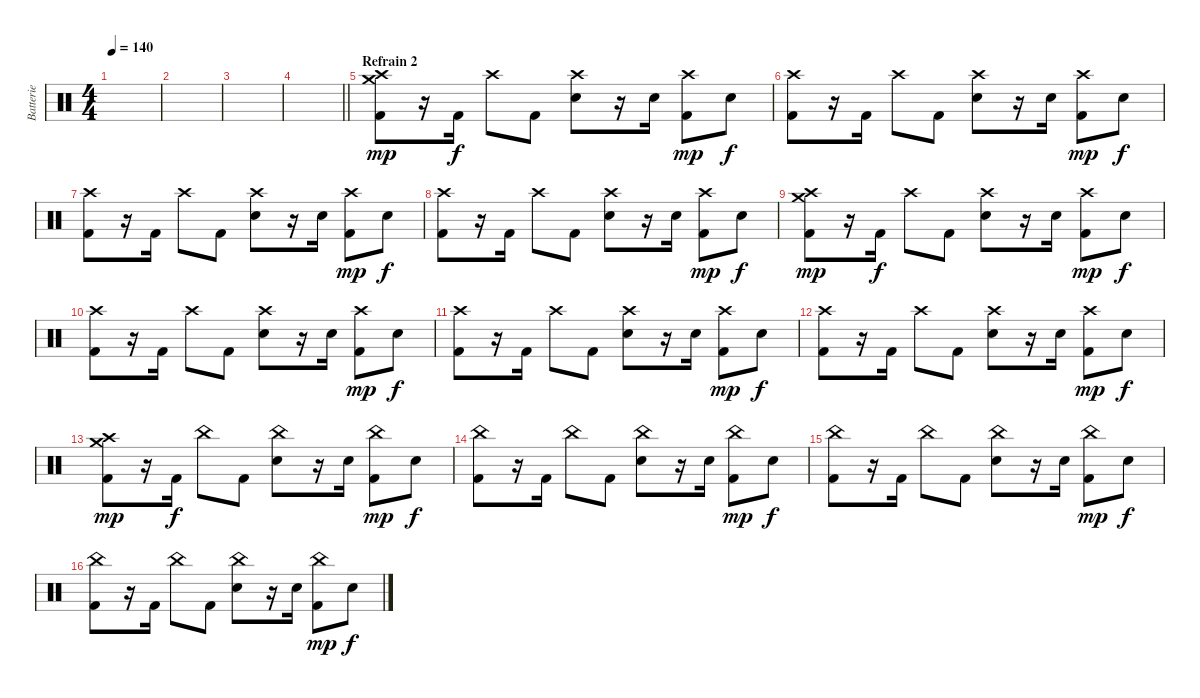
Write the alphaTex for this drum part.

\track ("Batterie" "Batterie") {instrument percussion}
\staff {score}
\articulation defaults
\ts (4 4)
\tempo 140
\clef neutral
\ks c
|
|
|
\barLineRight lightlight
|
\section ("" "Refrain 2")
("Kick (hit) 2" "Crash medium (hit)" "Crash high (hit)").8{dy mp} r.16 "Kick (hit) 2".16{dy f} "Crash high (hit)".8 "Kick (hit) 2".8 ("Electric Snare (hit)" "Crash high (hit)").8 r.16 "Electric Snare (hit)".16 ("Kick (hit) 2" "Crash high (hit)").8{dy mp} "Electric Snare (hit)".8{dy f} |
("Kick (hit) 2" "Crash high (hit)").8 r.16 "Kick (hit) 2".16 "Crash high (hit)".8 "Kick (hit) 2".8 ("Electric Snare (hit)" "Crash high (hit)").8 r.16 "Electric Snare (hit)".16 ("Kick (hit) 2" "Crash high (hit)").8{dy mp} "Electric Snare (hit)".8{dy f} |
("Kick (hit) 2" "Crash high (hit)").8 r.16 "Kick (hit) 2".16 "Crash high (hit)".8 "Kick (hit) 2".8 ("Electric Snare (hit)" "Crash high (hit)").8 r.16 "Electric Snare (hit)".16 ("Kick (hit) 2" "Crash high (hit)").8{dy mp} "Electric Snare (hit)".8{dy f} |
("Kick (hit) 2" "Crash high (hit)").8 r.16 "Kick (hit) 2".16 "Crash high (hit)".8 "Kick (hit) 2".8 ("Electric Snare (hit)" "Crash high (hit)").8 r.16 "Electric Snare (hit)".16 ("Kick (hit) 2" "Crash high (hit)").8{dy mp} "Electric Snare (hit)".8{dy f} |
("Kick (hit) 2" "Crash medium (hit)" "Crash high (hit)").8{dy mp} r.16 "Kick (hit) 2".16{dy f} "Crash high (hit)".8 "Kick (hit) 2".8 ("Electric Snare (hit)" "Crash high (hit)").8 r.16 "Electric Snare (hit)".16 ("Kick (hit) 2" "Crash high (hit)").8{dy mp} "Electric Snare (hit)".8{dy f} |
("Kick (hit) 2" "Crash high (hit)").8 r.16 "Kick (hit) 2".16 "Crash high (hit)".8 "Kick (hit) 2".8 ("Electric Snare (hit)" "Crash high (hit)").8 r.16 "Electric Snare (hit)".16 ("Kick (hit) 2" "Crash high (hit)").8{dy mp} "Electric Snare (hit)".8{dy f} |
("Kick (hit) 2" "Crash high (hit)").8 r.16 "Kick (hit) 2".16 "Crash high (hit)".8 "Kick (hit) 2".8 ("Electric Snare (hit)" "Crash high (hit)").8 r.16 "Electric Snare (hit)".16 ("Kick (hit) 2" "Crash high (hit)").8{dy mp} "Electric Snare (hit)".8{dy f} |
("Kick (hit) 2" "Crash high (hit)").8 r.16 "Kick (hit) 2".16 "Crash high (hit)".8 "Kick (hit) 2".8 ("Electric Snare (hit)" "Crash high (hit)").8 r.16 "Electric Snare (hit)".16 ("Kick (hit) 2" "Crash high (hit)").8{dy mp} "Electric Snare (hit)".8{dy f} |
("Kick (hit) 2" "Crash medium (hit)" "Crash high (hit)").8{dy mp} r.16 "Kick (hit) 2".16{dy f} "China (hit)".8 "Kick (hit) 2".8 ("Electric Snare (hit)" "China (hit)").8 r.16 "Electric Snare (hit)".16 ("Kick (hit) 2" "China (hit)").8{dy mp} "Electric Snare (hit)".8{dy f} |
("Kick (hit) 2" "China (hit)").8 r.16 "Kick (hit) 2".16 "China (hit)".8 "Kick (hit) 2".8 ("Electric Snare (hit)" "China (hit)").8 r.16 "Electric Snare (hit)".16 ("Kick (hit) 2" "China (hit)").8{dy mp} "Electric Snare (hit)".8{dy f} |
("Kick (hit) 2" "China (hit)").8 r.16 "Kick (hit) 2".16 "China (hit)".8 "Kick (hit) 2".8 ("Electric Snare (hit)" "China (hit)").8 r.16 "Electric Snare (hit)".16 ("Kick (hit) 2" "China (hit)").8{dy mp} "Electric Snare (hit)".8{dy f} |
("Kick (hit) 2" "China (hit)").8 r.16 "Kick (hit) 2".16 "China (hit)".8 "Kick (hit) 2".8 ("Electric Snare (hit)" "China (hit)").8 r.16 "Electric Snare (hit)".16 ("Kick (hit) 2" "China (hit)").8{dy mp} "Electric Snare (hit)".8{dy f}
